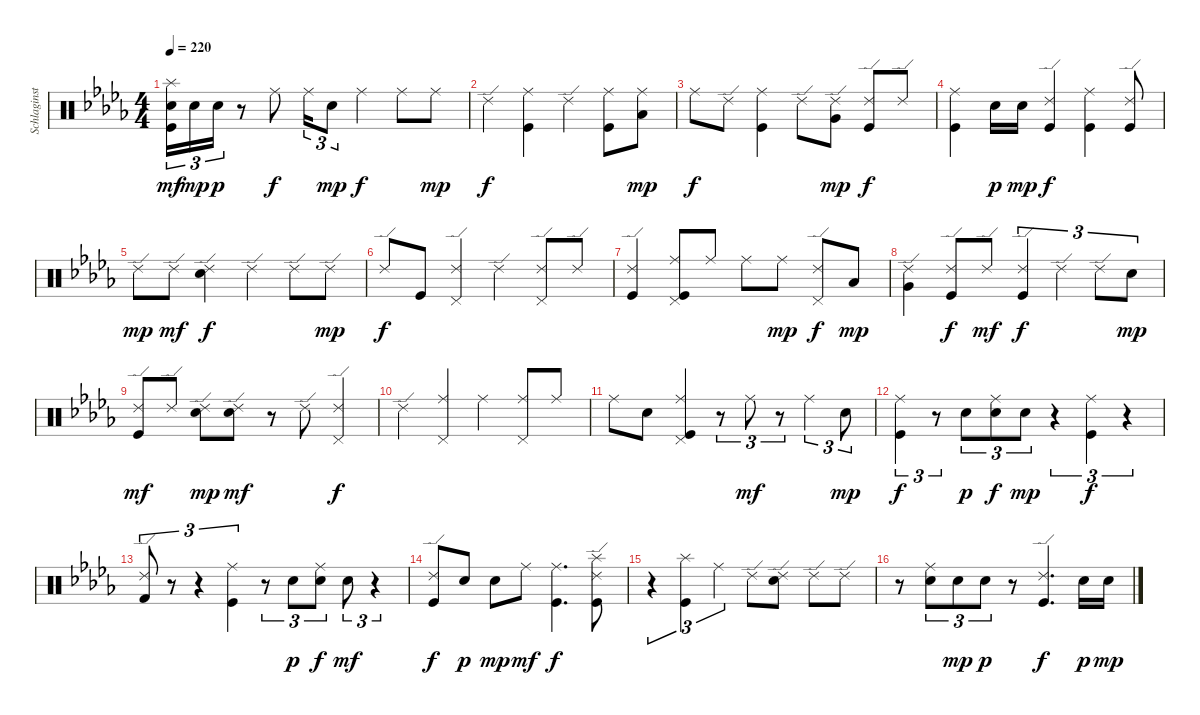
\track ("Schlaginstrumente - Auswahl" "Schlaginst") {instrument percussion}
\staff {score}
\articulation defaults
\ts (4 4)
\tempo 220
\clef neutral
\ks bbminor
("Splash (hit)" "Snare (hit) 2" "Kick (hit)").16{tu (3 2) dy mf} "Snare (hit) 2".16{tu (3 2) dy mp} "Snare (hit) 2".16{tu (3 2) dy p} r.8 "Ride (middle)".8{dy f} "Ride (middle)".16{tu (3 2)} "Snare (hit) 2".8{tu (3 2) dy mp} "Ride (middle)".4{dy f} "Ride (middle)".8 "Ride (middle)".8{dy mp} |
"Ride (edge) 2".4{dy f} ("Ride (middle)" "Kick (hit)").4 "Ride (edge) 2".4 ("Ride (middle)" "Kick (hit)").8 ("Ride (middle)" "Low Tom (hit)").8{dy mp} |
"Ride (middle)".8{dy f} "Ride (edge) 2".8 ("Ride (middle)" "Kick (hit)").4 "Ride (edge) 2".8 ("Ride (edge) 2" "Very Low Tom (hit)").8{dy mp} ("Ride (edge) 2" "Kick (hit)").8{dy f} "Ride (edge) 2".8 |
("Ride (middle)" "Kick (hit)").4 "Snare (hit) 2".16{dy p} "Snare (hit) 2".16{dy mp} ("Ride (edge) 2" "Kick (hit)").4{dy f} ("Ride (middle)" "Kick (hit)").4 ("Ride (edge) 2" "Kick (hit)").8 |
"Ride (edge) 2".8{dy mp} "Ride (edge) 2".8{dy mf} ("Ride (edge) 2" "Snare (hit) 2").4{dy f} "Ride (edge) 2".4 "Ride (edge) 2".8 "Ride (edge) 2".8{dy mp} |
"Ride (edge) 2".8{dy f} "Kick (hit)".8 ("Ride (edge) 2" "Pedal Hi-Hat (hit)").4 "Ride (edge) 2".4 ("Ride (edge) 2" "Pedal Hi-Hat (hit)").8 "Ride (edge) 2".8 |
("Ride (edge) 2" "Kick (hit)").4 ("Ride (middle)" "Pedal Hi-Hat (hit)" "Kick (hit)").8 "Ride (middle)".8 "Ride (middle)".8 "Ride (middle)".8{dy mp} ("Ride (edge) 2" "Pedal Hi-Hat (hit)").8{dy f} "Low Tom (hit)".8{dy mp} |
("Ride (edge) 2" "Very Low Tom (hit)").4 ("Ride (edge) 2" "Kick (hit)").8{dy f} "Ride (edge) 2".8{dy mf} ("Ride (edge) 2" "Kick (hit)").4{tu (3 2) dy f} "Ride (edge) 2".4{tu (3 2)} "Ride (edge) 2".8{tu (3 2)} "Snare (hit) 2".8{tu (3 2) dy mp} |
("Ride (edge) 2" "Kick (hit)").8{dy mf} "Ride (edge) 2".8 ("Ride (edge) 2" "Snare (hit) 2").8{dy mp} ("Ride (edge) 2" "Snare (hit) 2").8{dy mf} r.8 "Ride (edge) 2".8 ("Ride (edge) 2" "Pedal Hi-Hat (hit)").4{dy f} |
"Ride (edge) 2".4 ("Ride (middle)" "Pedal Hi-Hat (hit)").4 "Ride (middle)".4 ("Ride (middle)" "Pedal Hi-Hat (hit)").8 "Ride (middle)".8 |
"Ride (middle)".8 "Snare (hit) 2".8 ("Ride (middle)" "Pedal Hi-Hat (hit)" "Kick (hit)").4 r.8{tu (3 2)} "Ride (middle)".8{tu (3 2) dy mf} r.8{tu (3 2)} "Ride (middle)".4{tu (3 2)} "Snare (hit) 2".8{tu (3 2) dy mp} |
("Ride (middle)" "Kick (hit)").4{tu (3 2) dy f} r.8{tu (3 2)} "Snare (hit) 2".8{tu (3 2) dy p} ("Ride (middle)" "Snare (hit) 2").8{tu (3 2) dy f} "Snare (hit) 2".8{tu (3 2) dy mp} r.4{tu (3 2)} ("Ride (middle)" "Kick (hit)").4{tu (3 2) dy f} r.4{tu (3 2)} |
("Ride (edge) 2" "Kick (hit) 2").8{tu (3 2)} r.8{tu (3 2)} r.4{tu (3 2)} ("Ride (middle)" "Kick (hit)").4{tu (3 2)} r.8{tu (3 2)} "Snare (hit) 2".8{tu (3 2) dy p} ("Ride (middle)" "Snare (hit) 2").8{tu (3 2) dy f} "Snare (hit) 2".8{tu (3 2) dy mf} r.4{tu (3 2)} |
("Ride (edge) 2" "Kick (hit)").8{dy f} "Snare (hit) 2".8{dy p} "Snare (hit) 2".8{dy mp} "Ride (middle)".8{dy mf} ("Ride (middle)" "Kick (hit)").4{d dy f} ("Splash (hit)" "Ride (edge) 2" "Kick (hit)").8 |
r.4{tu (3 2)} ("Splash (hit)" "Kick (hit)").4{tu (3 2)} "Ride (middle)".4{tu (3 2)} "Ride (edge) 2".8 ("Ride (edge) 2" "Snare (hit) 2").8 "Ride (edge) 2".8 "Ride (edge) 2".8 |
r.8 ("Ride (middle)" "Snare (hit) 2").8{tu (3 2)} "Snare (hit) 2".8{tu (3 2) dy mp} "Snare (hit) 2".8{tu (3 2) dy p} r.8 ("Ride (edge) 2" "Kick (hit)").4{d dy f} "Snare (hit) 2".16{dy p} "Snare (hit) 2".16{dy mp}
